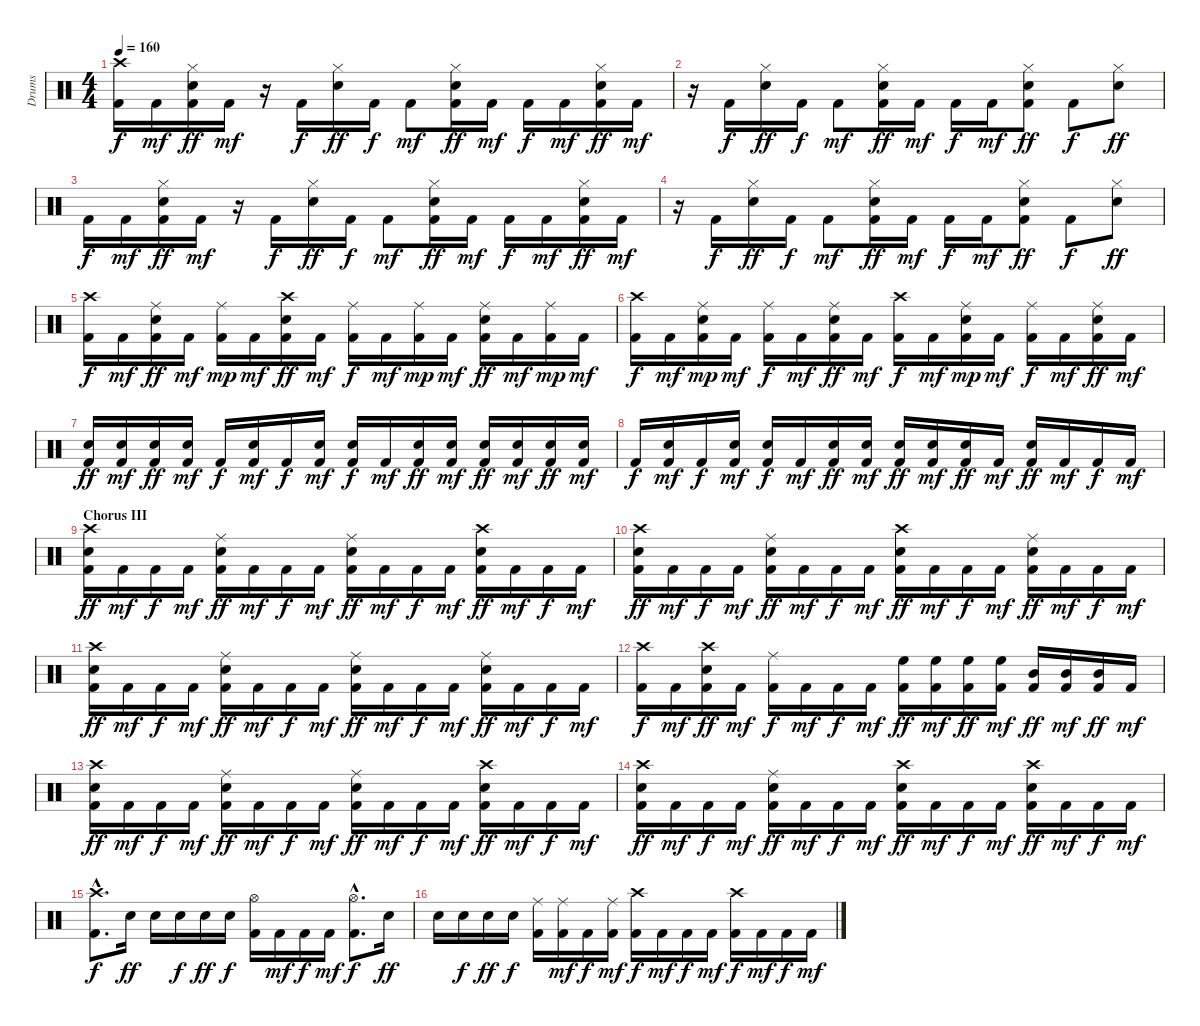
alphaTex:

\track ("Drums" "Drums") {instrument percussion}
\staff {score}
\articulation defaults
\ts (4 4)
\tempo 160
\clef neutral
\ks c
("Crash high (hit)" "Kick (hit) 2").16{dy f} "Kick (hit) 2".16{dy mf} ("Snare (hit) 2" "Hi-Hat (closed)" "Kick (hit) 2").16{dy ff} "Kick (hit) 2".16{dy mf} r.16 "Kick (hit) 2".16{dy f} ("Snare (hit) 2" "Hi-Hat (closed)").16{dy ff} "Kick (hit) 2".16{dy f} "Kick (hit) 2".8{dy mf} ("Snare (hit) 2" "Hi-Hat (closed)" "Kick (hit) 2").16{dy ff} "Kick (hit) 2".16{dy mf} "Kick (hit) 2".16{dy f} "Kick (hit) 2".16{dy mf} ("Snare (hit) 2" "Hi-Hat (closed)" "Kick (hit) 2").16{dy ff} "Kick (hit) 2".16{dy mf} |
r.16 "Kick (hit) 2".16{dy f} ("Snare (hit) 2" "Hi-Hat (closed)").16{dy ff} "Kick (hit) 2".16{dy f} "Kick (hit) 2".8{dy mf} ("Snare (hit) 2" "Hi-Hat (closed)" "Kick (hit) 2").16{dy ff} "Kick (hit) 2".16{dy mf} "Kick (hit) 2".16{dy f} "Kick (hit) 2".16{dy mf} ("Snare (hit) 2" "Hi-Hat (closed)" "Kick (hit) 2").8{dy ff} "Kick (hit) 2".8{dy f} ("Snare (hit) 2" "Hi-Hat (closed)").8{dy ff} |
"Kick (hit) 2".16{dy f} "Kick (hit) 2".16{dy mf} ("Snare (hit) 2" "Hi-Hat (closed)" "Kick (hit) 2").16{dy ff} "Kick (hit) 2".16{dy mf} r.16 "Kick (hit) 2".16{dy f} ("Snare (hit) 2" "Hi-Hat (closed)").16{dy ff} "Kick (hit) 2".16{dy f} "Kick (hit) 2".8{dy mf} ("Snare (hit) 2" "Hi-Hat (closed)" "Kick (hit) 2").16{dy ff} "Kick (hit) 2".16{dy mf} "Kick (hit) 2".16{dy f} "Kick (hit) 2".16{dy mf} ("Snare (hit) 2" "Hi-Hat (closed)" "Kick (hit) 2").16{dy ff} "Kick (hit) 2".16{dy mf} |
r.16 "Kick (hit) 2".16{dy f} ("Snare (hit) 2" "Hi-Hat (closed)").16{dy ff} "Kick (hit) 2".16{dy f} "Kick (hit) 2".8{dy mf} ("Snare (hit) 2" "Hi-Hat (closed)" "Kick (hit) 2").16{dy ff} "Kick (hit) 2".16{dy mf} "Kick (hit) 2".16{dy f} "Kick (hit) 2".16{dy mf} ("Snare (hit) 2" "Hi-Hat (closed)" "Kick (hit) 2").8{dy ff} "Kick (hit) 2".8{dy f} ("Snare (hit) 2" "Hi-Hat (closed)").8{dy ff} |
("Crash high (hit)" "Kick (hit) 2").16{dy f} "Kick (hit) 2".16{dy mf} ("Snare (hit) 2" "Ride (middle)" "Kick (hit) 2").16{dy ff} "Kick (hit) 2".16{dy mf} ("Ride (middle)" "Kick (hit) 2").16{dy mp} "Kick (hit) 2".16{dy mf} ("Snare (hit) 2" "Crash high (hit)" "Kick (hit) 2").16{dy ff} "Kick (hit) 2".16{dy mf} ("Ride (middle)" "Kick (hit) 2").16{dy f} "Kick (hit) 2".16{dy mf} ("Ride (middle)" "Kick (hit) 2").16{dy mp} "Kick (hit) 2".16{dy mf} ("Snare (hit) 2" "Ride (middle)" "Kick (hit) 2").16{dy ff} "Kick (hit) 2".16{dy mf} ("Ride (middle)" "Kick (hit) 2").16{dy mp} "Kick (hit) 2".16{dy mf} |
("Crash high (hit)" "Kick (hit) 2").16{dy f} "Kick (hit) 2".16{dy mf} ("Snare (hit) 2" "Ride (middle)" "Kick (hit) 2").16{dy mp} "Kick (hit) 2".16{dy mf} ("Ride (middle)" "Kick (hit) 2").16{dy f} "Kick (hit) 2".16{dy mf} ("Ride (middle)" "Snare (hit) 2" "Kick (hit) 2").16{dy ff} "Kick (hit) 2".16{dy mf} ("Crash high (hit)" "Kick (hit) 2").16{dy f} "Kick (hit) 2".16{dy mf} ("Snare (hit) 2" "Ride (middle)" "Kick (hit) 2").16{dy mp} "Kick (hit) 2".16{dy mf} ("Ride (middle)" "Kick (hit) 2").16{dy f} "Kick (hit) 2".16{dy mf} ("Ride (middle)" "Snare (hit) 2" "Kick (hit) 2").16{dy ff} "Kick (hit) 2".16{dy mf} |
("Snare (hit) 2" "Kick (hit) 2").16{dy ff} ("Snare (hit) 2" "Kick (hit) 2").16{dy mf} ("Snare (hit) 2" "Kick (hit) 2").16{dy ff} ("Snare (hit) 2" "Kick (hit) 2").16{dy mf} "Kick (hit) 2".16{dy f} ("Snare (hit) 2" "Kick (hit) 2").16{dy mf} "Kick (hit) 2".16{dy f} ("Snare (hit) 2" "Kick (hit) 2").16{dy mf} ("Snare (hit) 2" "Kick (hit) 2").16{dy f} "Kick (hit) 2".16{dy mf} ("Snare (hit) 2" "Kick (hit) 2").16{dy ff} ("Snare (hit) 2" "Kick (hit) 2").16{dy mf} ("Snare (hit) 2" "Kick (hit) 2").16{dy ff} ("Snare (hit) 2" "Kick (hit) 2").16{dy mf} ("Snare (hit) 2" "Kick (hit) 2").16{dy ff} ("Snare (hit) 2" "Kick (hit) 2").16{dy mf} |
"Kick (hit) 2".16{dy f} ("Snare (hit) 2" "Kick (hit) 2").16{dy mf} "Kick (hit) 2".16{dy f} ("Snare (hit) 2" "Kick (hit) 2").16{dy mf} ("Snare (hit) 2" "Kick (hit) 2").16{dy f} "Kick (hit) 2".16{dy mf} ("Snare (hit) 2" "Kick (hit) 2").16{dy ff} ("Snare (hit) 2" "Kick (hit) 2").16{dy mf} ("Snare (hit) 2" "Kick (hit) 2").16{dy ff} ("Snare (hit) 2" "Kick (hit) 2").16{dy mf} ("Snare (hit) 2" "Kick (hit) 2").16{dy ff} "Kick (hit) 2".16{dy mf} ("Snare (hit) 2" "Kick (hit) 2").16{dy ff} "Kick (hit) 2".16{dy mf} "Kick (hit) 2".16{dy f} "Kick (hit) 2".16{dy mf} |
\section ("" "Chorus III")
("Snare (hit) 2" "Crash high (hit)" "Kick (hit) 2").16{dy ff} "Kick (hit) 2".16{dy mf} "Kick (hit) 2".16{dy f} "Kick (hit) 2".16{dy mf} ("Snare (hit) 2" "Ride (middle)" "Kick (hit) 2").16{dy ff} "Kick (hit) 2".16{dy mf} "Kick (hit) 2".16{dy f} "Kick (hit) 2".16{dy mf} ("Snare (hit) 2" "Ride (middle)" "Kick (hit) 2").16{dy ff} "Kick (hit) 2".16{dy mf} "Kick (hit) 2".16{dy f} "Kick (hit) 2".16{dy mf} ("Snare (hit) 2" "Crash high (hit)" "Kick (hit) 2").16{dy ff} "Kick (hit) 2".16{dy mf} "Kick (hit) 2".16{dy f} "Kick (hit) 2".16{dy mf} |
("Snare (hit) 2" "Crash high (hit)" "Kick (hit) 2").16{dy ff} "Kick (hit) 2".16{dy mf} "Kick (hit) 2".16{dy f} "Kick (hit) 2".16{dy mf} ("Snare (hit) 2" "Ride (middle)" "Kick (hit) 2").16{dy ff} "Kick (hit) 2".16{dy mf} "Kick (hit) 2".16{dy f} "Kick (hit) 2".16{dy mf} ("Snare (hit) 2" "Crash high (hit)" "Kick (hit) 2").16{dy ff} "Kick (hit) 2".16{dy mf} "Kick (hit) 2".16{dy f} "Kick (hit) 2".16{dy mf} ("Snare (hit) 2" "Ride (middle)" "Kick (hit) 2").16{dy ff} "Kick (hit) 2".16{dy mf} "Kick (hit) 2".16{dy f} "Kick (hit) 2".16{dy mf} |
("Snare (hit) 2" "Crash high (hit)" "Kick (hit) 2").16{dy ff} "Kick (hit) 2".16{dy mf} "Kick (hit) 2".16{dy f} "Kick (hit) 2".16{dy mf} ("Snare (hit) 2" "Ride (middle)" "Kick (hit) 2").16{dy ff} "Kick (hit) 2".16{dy mf} "Kick (hit) 2".16{dy f} "Kick (hit) 2".16{dy mf} ("Snare (hit) 2" "Ride (middle)" "Kick (hit) 2").16{dy ff} "Kick (hit) 2".16{dy mf} "Kick (hit) 2".16{dy f} "Kick (hit) 2".16{dy mf} ("Snare (hit) 2" "Ride (middle)" "Kick (hit) 2").16{dy ff} "Kick (hit) 2".16{dy mf} "Kick (hit) 2".16{dy f} "Kick (hit) 2".16{dy mf} |
("Crash high (hit)" "Kick (hit) 2").16{dy f} "Kick (hit) 2".16{dy mf} ("Snare (hit) 2" "Crash high (hit)" "Kick (hit) 2").16{dy ff} "Kick (hit) 2".16{dy mf} ("Ride (middle)" "Kick (hit) 2").16{dy f} "Kick (hit) 2".16{dy mf} "Kick (hit) 2".16{dy f} "Kick (hit) 2".16{dy mf} ("High Floor Tom (hit)" "Kick (hit) 2").16{dy ff} ("High Floor Tom (hit)" "Kick (hit) 2").16{dy mf} ("High Floor Tom (hit)" "Kick (hit) 2").16{dy ff} ("High Floor Tom (hit)" "Kick (hit) 2").16{dy mf} ("Mid Tom (hit)" "Kick (hit) 2").16{dy ff} ("Mid Tom (hit)" "Kick (hit) 2").16{dy mf} ("Mid Tom (hit)" "Kick (hit) 2").16{dy ff} "Kick (hit) 2".16{dy mf} |
("Snare (hit) 2" "Crash high (hit)" "Kick (hit) 2").16{dy ff} "Kick (hit) 2".16{dy mf} "Kick (hit) 2".16{dy f} "Kick (hit) 2".16{dy mf} ("Snare (hit) 2" "Ride (middle)" "Kick (hit) 2").16{dy ff} "Kick (hit) 2".16{dy mf} "Kick (hit) 2".16{dy f} "Kick (hit) 2".16{dy mf} ("Snare (hit) 2" "Ride (middle)" "Kick (hit) 2").16{dy ff} "Kick (hit) 2".16{dy mf} "Kick (hit) 2".16{dy f} "Kick (hit) 2".16{dy mf} ("Snare (hit) 2" "Crash high (hit)" "Kick (hit) 2").16{dy ff} "Kick (hit) 2".16{dy mf} "Kick (hit) 2".16{dy f} "Kick (hit) 2".16{dy mf} |
("Snare (hit) 2" "Crash high (hit)" "Kick (hit) 2").16{dy ff} "Kick (hit) 2".16{dy mf} "Kick (hit) 2".16{dy f} "Kick (hit) 2".16{dy mf} ("Snare (hit) 2" "Ride (middle)" "Kick (hit) 2").16{dy ff} "Kick (hit) 2".16{dy mf} "Kick (hit) 2".16{dy f} "Kick (hit) 2".16{dy mf} ("Snare (hit) 2" "Crash high (hit)" "Kick (hit) 2").16{dy ff} "Kick (hit) 2".16{dy mf} "Kick (hit) 2".16{dy f} "Kick (hit) 2".16{dy mf} ("Crash high (hit)" "Snare (hit) 2" "Kick (hit) 2").16{dy ff} "Kick (hit) 2".16{dy mf} "Kick (hit) 2".16{dy f} "Kick (hit) 2".16{dy mf} |
("Crash high (hit)"{hac} "Kick (hit) 2"{hac}).8{d dy f} "Snare (hit) 2".16{dy ff} "Snare (hit) 2".16 "Snare (hit) 2".16{dy f} "Snare (hit) 2".16{dy ff} "Snare (hit) 2".16{dy f} ("Hi-Hat (open)" "Kick (hit) 2").16 "Kick (hit) 2".16{dy mf} "Kick (hit) 2".16{dy f} "Kick (hit) 2".16{dy mf} ("Hi-Hat (open)"{hac} "Kick (hit) 2"{hac}).8{d dy f} "Snare (hit) 2".16{dy ff} |
"Snare (hit) 2".16 "Snare (hit) 2".16{dy f} "Snare (hit) 2".16{dy ff} "Snare (hit) 2".16{dy f} ("Ride (middle)" "Kick (hit) 2").16 ("Ride (middle)" "Kick (hit) 2").16{dy mf} "Kick (hit) 2".16{dy f} ("Ride (middle)" "Kick (hit) 2").16{dy mf} ("Crash high (hit)" "Kick (hit) 2").16{dy f} "Kick (hit) 2".16{dy mf} "Kick (hit) 2".16{dy f} "Kick (hit) 2".16{dy mf} ("Crash high (hit)" "Kick (hit) 2").16{dy f} "Kick (hit) 2".16{dy mf} "Kick (hit) 2".16{dy f} "Kick (hit) 2".16{dy mf}
